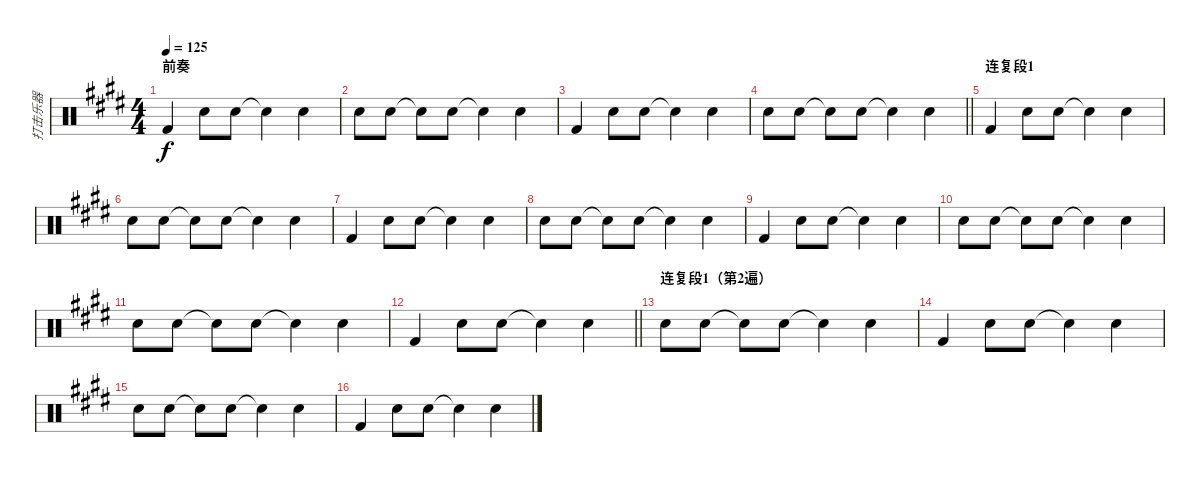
\track ("打击乐器" "打击乐器") {instrument percussion}
\staff {score}
\articulation defaults
\ts (4 4)
\section ("" "前奏")
\tempo 125
\clef neutral
\ks e "Kick (hit) 2".4{dy f} "Snare (hit) 2".8 "Snare (hit) 2".8 "Snare (hit)"{t}.4 "Snare (hit) 2".4
|
"Snare (hit) 2".8 "Snare (hit) 2".8 "Snare (hit)"{t}.8 "Snare (hit) 2".8 "Snare (hit)"{t}.4 "Snare (hit) 2".4 |
"Kick (hit) 2".4 "Snare (hit) 2".8 "Snare (hit) 2".8 "Snare (hit)"{t}.4 "Snare (hit) 2".4 |
\barLineRight lightlight "Snare (hit) 2".8 "Snare (hit) 2".8 "Snare (hit)"{t}.8 "Snare (hit) 2".8 "Snare (hit)"{t}.4 "Snare (hit) 2".4
|
\section ("" "连复段1")
"Kick (hit) 2".4 "Snare (hit) 2".8 "Snare (hit) 2".8 "Snare (hit)"{t}.4 "Snare (hit) 2".4 |
"Snare (hit) 2".8 "Snare (hit) 2".8 "Snare (hit)"{t}.8 "Snare (hit) 2".8 "Snare (hit)"{t}.4 "Snare (hit) 2".4 |
"Kick (hit) 2".4 "Snare (hit) 2".8 "Snare (hit) 2".8 "Snare (hit)"{t}.4 "Snare (hit) 2".4 |
"Snare (hit) 2".8 "Snare (hit) 2".8 "Snare (hit)"{t}.8 "Snare (hit) 2".8 "Snare (hit)"{t}.4 "Snare (hit) 2".4 |
"Kick (hit) 2".4 "Snare (hit) 2".8 "Snare (hit) 2".8 "Snare (hit)"{t}.4 "Snare (hit) 2".4 |
"Snare (hit) 2".8 "Snare (hit) 2".8 "Snare (hit)"{t}.8 "Snare (hit) 2".8 "Snare (hit)"{t}.4 "Snare (hit) 2".4 |
"Snare (hit) 2".8 "Snare (hit) 2".8 "Snare (hit)"{t}.8 "Snare (hit) 2".8 "Snare (hit)"{t}.4 "Snare (hit) 2".4 |
\barLineRight lightlight "Kick (hit) 2".4 "Snare (hit) 2".8 "Snare (hit) 2".8 "Snare (hit)"{t}.4 "Snare (hit) 2".4
|
\section ("" "连复段1（第2遍）")
"Snare (hit) 2".8 "Snare (hit) 2".8 "Snare (hit)"{t}.8 "Snare (hit) 2".8 "Snare (hit)"{t}.4 "Snare (hit) 2".4 |
"Kick (hit) 2".4 "Snare (hit) 2".8 "Snare (hit) 2".8 "Snare (hit)"{t}.4 "Snare (hit) 2".4 |
"Snare (hit) 2".8 "Snare (hit) 2".8 "Snare (hit)"{t}.8 "Snare (hit) 2".8 "Snare (hit)"{t}.4 "Snare (hit) 2".4 |
"Kick (hit) 2".4 "Snare (hit) 2".8 "Snare (hit) 2".8 "Snare (hit)"{t}.4 "Snare (hit) 2".4
